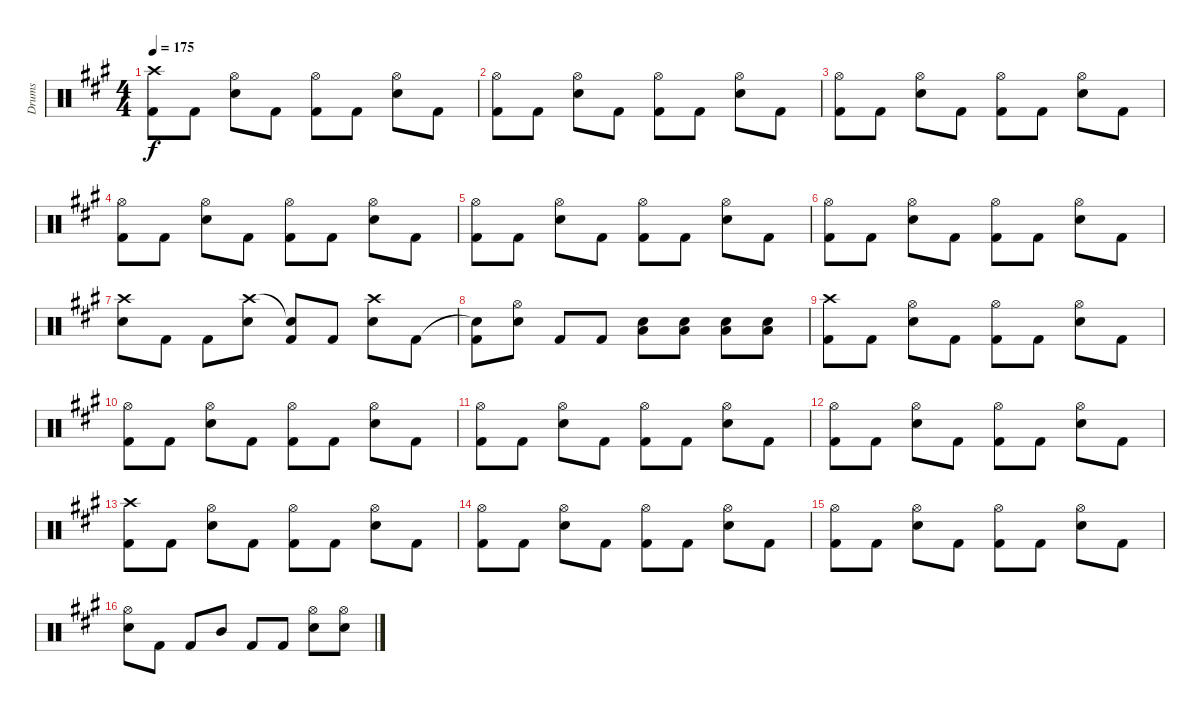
\track ("Drums" "Drums") {instrument percussion}
\staff {score}
\articulation defaults
\ts (4 4)
\tempo 175
\clef neutral
\ks a
("Crash high (hit)" "Kick (hit) 2").8{dy f} "Kick (hit) 2".8 ("Hi-Hat (open)" "Snare (hit) 2").8 "Kick (hit) 2".8 ("Hi-Hat (open)" "Kick (hit) 2").8 "Kick (hit) 2".8 ("Hi-Hat (open)" "Snare (hit) 2").8 "Kick (hit) 2".8 |
("Hi-Hat (open)" "Kick (hit) 2").8 "Kick (hit) 2".8 ("Hi-Hat (open)" "Snare (hit) 2").8 "Kick (hit) 2".8 ("Hi-Hat (open)" "Kick (hit) 2").8 "Kick (hit) 2".8 ("Hi-Hat (open)" "Snare (hit) 2").8 "Kick (hit) 2".8 |
("Hi-Hat (open)" "Kick (hit) 2").8 "Kick (hit) 2".8 ("Hi-Hat (open)" "Snare (hit) 2").8 "Kick (hit) 2".8 ("Hi-Hat (open)" "Kick (hit) 2").8 "Kick (hit) 2".8 ("Hi-Hat (open)" "Snare (hit) 2").8 "Kick (hit) 2".8 |
("Hi-Hat (open)" "Kick (hit) 2").8 "Kick (hit) 2".8 ("Hi-Hat (open)" "Snare (hit) 2").8 "Kick (hit) 2".8 ("Hi-Hat (open)" "Kick (hit) 2").8 "Kick (hit) 2".8 ("Hi-Hat (open)" "Snare (hit) 2").8 "Kick (hit) 2".8 |
("Hi-Hat (open)" "Kick (hit) 2").8 "Kick (hit) 2".8 ("Hi-Hat (open)" "Snare (hit) 2").8 "Kick (hit) 2".8 ("Hi-Hat (open)" "Kick (hit) 2").8 "Kick (hit) 2".8 ("Hi-Hat (open)" "Snare (hit) 2").8 "Kick (hit) 2".8 |
("Hi-Hat (open)" "Kick (hit) 2").8 "Kick (hit) 2".8 ("Hi-Hat (open)" "Snare (hit) 2").8 "Kick (hit) 2".8 ("Hi-Hat (open)" "Kick (hit) 2").8 "Kick (hit) 2".8 ("Hi-Hat (open)" "Snare (hit) 2").8 "Kick (hit) 2".8 |
("Crash high (hit)" "Snare (hit) 2").8 "Kick (hit) 2".8 "Kick (hit) 2".8 ("Crash high (hit)" "Snare (hit) 2").8 ("Snare (hit)"{t} "Kick (hit) 2").8 "Kick (hit) 2".8 ("Crash high (hit)" "Snare (hit) 2").8 "Kick (hit) 2".8 |
("Snare (hit)"{t} "Kick (hit) 2").8 ("Hi-Hat (open)" "Snare (hit) 2").8 "Kick (hit) 2".8 "Kick (hit) 2".8 ("Snare (hit) 2" "Low Tom (hit)").8 ("Snare (hit) 2" "Low Tom (hit)").8 ("Snare (hit) 2" "Low Tom (hit)").8 ("Snare (hit) 2" "Low Tom (hit)").8 |
("Crash high (hit)" "Kick (hit) 2").8 "Kick (hit) 2".8 ("Hi-Hat (open)" "Snare (hit) 2").8 "Kick (hit) 2".8 ("Hi-Hat (open)" "Kick (hit) 2").8 "Kick (hit) 2".8 ("Hi-Hat (open)" "Snare (hit) 2").8 "Kick (hit) 2".8 |
("Hi-Hat (open)" "Kick (hit) 2").8 "Kick (hit) 2".8 ("Hi-Hat (open)" "Snare (hit) 2").8 "Kick (hit) 2".8 ("Hi-Hat (open)" "Kick (hit) 2").8 "Kick (hit) 2".8 ("Hi-Hat (open)" "Snare (hit) 2").8 "Kick (hit) 2".8 |
("Hi-Hat (open)" "Kick (hit) 2").8 "Kick (hit) 2".8 ("Hi-Hat (open)" "Snare (hit) 2").8 "Kick (hit) 2".8 ("Hi-Hat (open)" "Kick (hit) 2").8 "Kick (hit) 2".8 ("Hi-Hat (open)" "Snare (hit) 2").8 "Kick (hit) 2".8 |
("Hi-Hat (open)" "Kick (hit) 2").8 "Kick (hit) 2".8 ("Hi-Hat (open)" "Snare (hit) 2").8 "Kick (hit) 2".8 ("Hi-Hat (open)" "Kick (hit) 2").8 "Kick (hit) 2".8 ("Hi-Hat (open)" "Snare (hit) 2").8 "Kick (hit) 2".8 |
("Crash high (hit)" "Kick (hit) 2").8 "Kick (hit) 2".8 ("Hi-Hat (open)" "Snare (hit) 2").8 "Kick (hit) 2".8 ("Hi-Hat (open)" "Kick (hit) 2").8 "Kick (hit) 2".8 ("Hi-Hat (open)" "Snare (hit) 2").8 "Kick (hit) 2".8 |
("Hi-Hat (open)" "Kick (hit) 2").8 "Kick (hit) 2".8 ("Hi-Hat (open)" "Snare (hit) 2").8 "Kick (hit) 2".8 ("Hi-Hat (open)" "Kick (hit) 2").8 "Kick (hit) 2".8 ("Hi-Hat (open)" "Snare (hit) 2").8 "Kick (hit) 2".8 |
("Hi-Hat (open)" "Kick (hit) 2").8 "Kick (hit) 2".8 ("Hi-Hat (open)" "Snare (hit) 2").8 "Kick (hit) 2".8 ("Hi-Hat (open)" "Kick (hit) 2").8 "Kick (hit) 2".8 ("Hi-Hat (open)" "Snare (hit) 2").8 "Kick (hit) 2".8 |
("Hi-Hat (open)" "Snare (hit) 2").8 "Kick (hit) 2".8 "Kick (hit) 2".8 "Mid Tom (hit)".8 "Kick (hit) 2".8 "Kick (hit) 2".8 ("Hi-Hat (open)" "Snare (hit) 2").8 ("Hi-Hat (open)" "Snare (hit) 2").8
